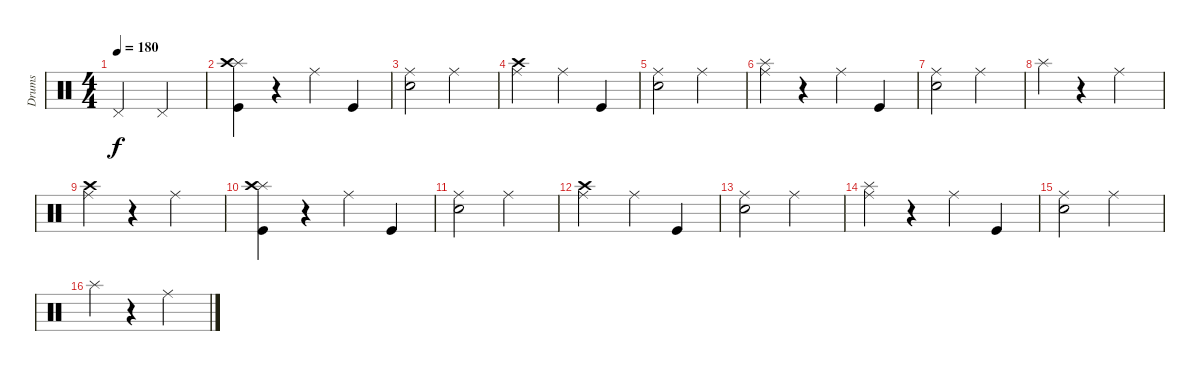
\track ("Drums" "Drums") {instrument percussion}
\staff {score}
\articulation defaults
\ts (4 4)
\tempo 180
\clef neutral
\ks c "Pedal Hi-Hat (hit)".2{dy f} "Pedal Hi-Hat (hit)".2
|
("Splash (hit)" "Crash high (hit)" "Kick (hit)").4 r.4 "Ride (middle)".4 "Kick (hit)".4 |
("Ride (middle)" "Electric Snare (hit)").2 "Ride (middle)".2 |
("Crash high (hit)" "Ride (middle)").2 "Ride (middle)".4 "Kick (hit)".4 |
("Ride (middle)" "Electric Snare (hit)").2 "Ride (middle)".2 |
("Splash (hit)" "Ride (middle)").4 r.4 "Ride (middle)".4 "Kick (hit)".4 |
("Ride (middle)" "Electric Snare (hit)").2 "Ride (middle)".2 |
"Splash (hit)".4 r.4 "Ride (middle)".2 |
("Crash high (hit)" "Ride (middle)").4 r.4 "Ride (middle)".2 |
("Splash (hit)" "Crash high (hit)" "Kick (hit)").4 r.4 "Ride (middle)".4 "Kick (hit)".4 |
("Ride (middle)" "Electric Snare (hit)").2 "Ride (middle)".2 |
("Crash high (hit)" "Ride (middle)").2 "Ride (middle)".4 "Kick (hit)".4 |
("Ride (middle)" "Electric Snare (hit)").2 "Ride (middle)".2 |
("Splash (hit)" "Ride (middle)").4 r.4 "Ride (middle)".4 "Kick (hit)".4 |
("Ride (middle)" "Electric Snare (hit)").2 "Ride (middle)".2 |
"Splash (hit)".4 r.4 "Ride (middle)".2
